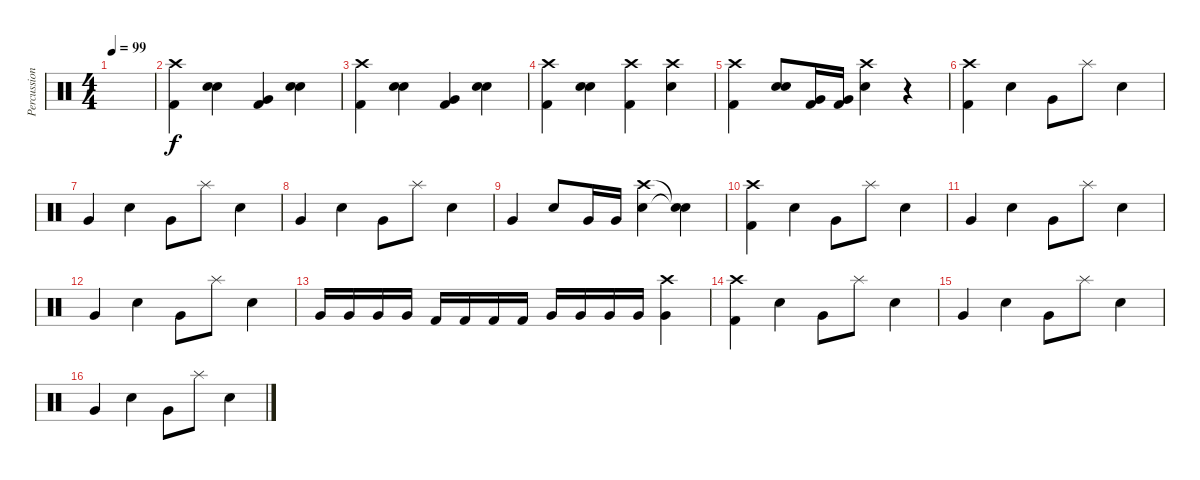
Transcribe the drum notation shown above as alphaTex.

\track ("Percussion" "Percussion") {instrument percussion}
\staff {score}
\articulation defaults
\ts (4 4)
\tempo 99
\clef neutral
\ks c
|
("Crash high (hit)" "Kick (hit) 2").4 ("Electric Snare (hit)" "Electric Snare (hit)").4 ("Very Low Tom (hit)" "Kick (hit) 2").4 ("Electric Snare (hit)" "Electric Snare (hit)").4 |
("Crash high (hit)" "Kick (hit) 2").4 ("Electric Snare (hit)" "Electric Snare (hit)").4 ("Very Low Tom (hit)" "Kick (hit) 2").4 ("Electric Snare (hit)" "Electric Snare (hit)").4 |
("Crash high (hit)" "Kick (hit) 2").4 ("Electric Snare (hit)" "Electric Snare (hit)").4 ("Crash high (hit)" "Kick (hit) 2").4 ("Crash high (hit)" "Electric Snare (hit)").4 |
("Crash high (hit)" "Kick (hit) 2").4 ("Electric Snare (hit)" "Electric Snare (hit)").8 ("Very Low Tom (hit)" "Kick (hit) 2").16 ("Very Low Tom (hit)" "Kick (hit) 2").16 ("Crash high (hit)" "Electric Snare (hit)").4 r.4 |
("Crash high (hit)" "Kick (hit) 2").4 "Electric Snare (hit)".4 "Very Low Tom (hit)".8 "Splash (hit)".8 "Electric Snare (hit)".4 |
"Very Low Tom (hit)".4 "Electric Snare (hit)".4 "Very Low Tom (hit)".8 "Splash (hit)".8 "Electric Snare (hit)".4 |
"Very Low Tom (hit)".4 "Electric Snare (hit)".4 "Very Low Tom (hit)".8 "Splash (hit)".8 "Electric Snare (hit)".4 |
"Very Low Tom (hit)".4 "Electric Snare (hit)".8 "Very Low Tom (hit)".16 "Very Low Tom (hit)".16 ("Crash high (hit)" "Electric Snare (hit)").4 ("Snare (hit)"{t} "Snare (hit)"{t}).4 |
("Crash high (hit)" "Kick (hit) 2").4 "Electric Snare (hit)".4 "Very Low Tom (hit)".8 "Splash (hit)".8 "Electric Snare (hit)".4 |
"Very Low Tom (hit)".4 "Electric Snare (hit)".4 "Very Low Tom (hit)".8 "Splash (hit)".8 "Electric Snare (hit)".4 |
"Very Low Tom (hit)".4 "Electric Snare (hit)".4 "Very Low Tom (hit)".8 "Splash (hit)".8 "Electric Snare (hit)".4 |
"Very Low Tom (hit)".16 "Very Low Tom (hit)".16 "Very Low Tom (hit)".16 "Very Low Tom (hit)".16 "Kick (hit) 2".16 "Kick (hit) 2".16 "Kick (hit) 2".16 "Kick (hit) 2".16 "Very Low Tom (hit)".16 "Very Low Tom (hit)".16 "Very Low Tom (hit)".16 "Very Low Tom (hit)".16 ("Crash high (hit)" "Very Low Tom (hit)").4 |
("Crash high (hit)" "Kick (hit) 2").4 "Electric Snare (hit)".4 "Very Low Tom (hit)".8 "Splash (hit)".8 "Electric Snare (hit)".4 |
"Very Low Tom (hit)".4 "Electric Snare (hit)".4 "Very Low Tom (hit)".8 "Splash (hit)".8 "Electric Snare (hit)".4 |
"Very Low Tom (hit)".4 "Electric Snare (hit)".4 "Very Low Tom (hit)".8 "Splash (hit)".8 "Electric Snare (hit)".4
